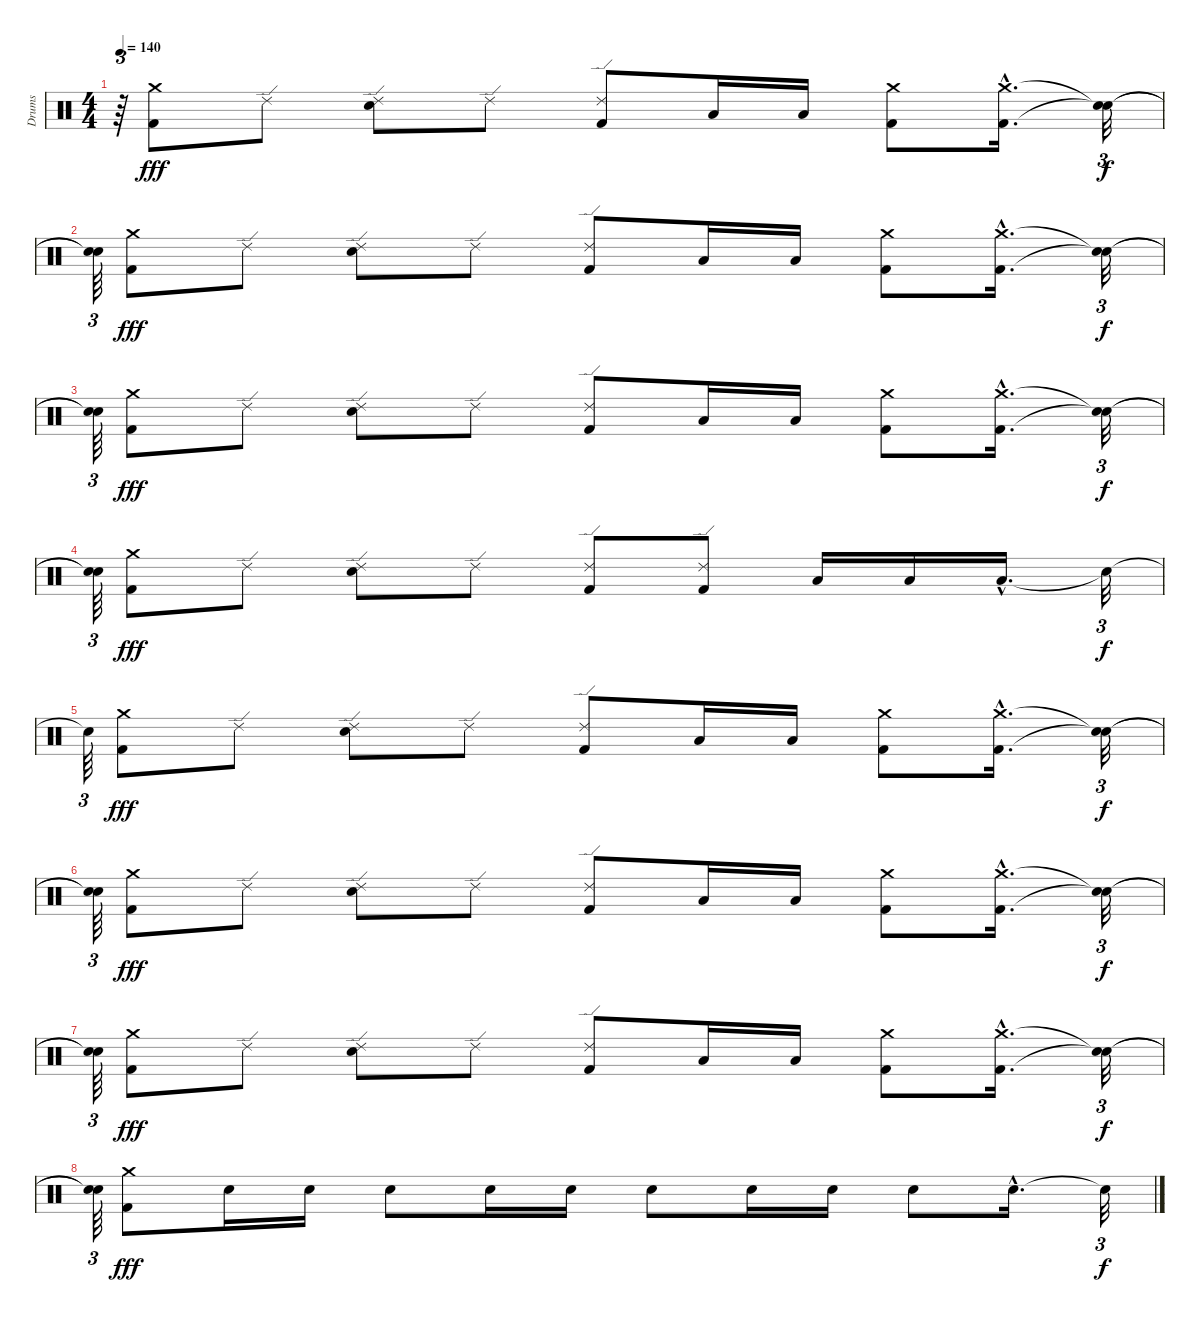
\track ("Drums" "Drums") {instrument percussion}
\staff {score}
\articulation defaults
\ts (4 4)
\tempo 140
\clef neutral
\ks c
r.64{tu (3 2) dy f} ("Crash medium (hit)" "Kick (hit) 2").8{dy fff} "Ride (edge) 2".8 ("Snare (hit) 2" "Ride (edge) 2").8 "Ride (edge) 2".8 ("Ride (edge) 2" "Kick (hit) 2").8 "Low Tom (hit)".16 "Low Tom (hit)".16 ("Crash medium (hit)" "Kick (hit) 2").8 ("Crash medium (hit)"{hac} "Kick (hit) 2"{hac}).16{d} ("Snare (hit)"{t} "Snare (hit)"{t}).32{tu (3 2) dy f} |
("Snare (hit)"{t} "Snare (hit)"{t}).64{tu (3 2)} ("Crash medium (hit)" "Kick (hit) 2").8{dy fff} "Ride (edge) 2".8 ("Snare (hit) 2" "Ride (edge) 2").8 "Ride (edge) 2".8 ("Ride (edge) 2" "Kick (hit) 2").8 "Low Tom (hit)".16 "Low Tom (hit)".16 ("Crash medium (hit)" "Kick (hit) 2").8 ("Crash medium (hit)"{hac} "Kick (hit) 2"{hac}).16{d} ("Snare (hit)"{t} "Snare (hit)"{t}).32{tu (3 2) dy f} |
("Snare (hit)"{t} "Snare (hit)"{t}).64{tu (3 2)} ("Crash medium (hit)" "Kick (hit) 2").8{dy fff} "Ride (edge) 2".8 ("Snare (hit) 2" "Ride (edge) 2").8 "Ride (edge) 2".8 ("Ride (edge) 2" "Kick (hit) 2").8 "Low Tom (hit)".16 "Low Tom (hit)".16 ("Crash medium (hit)" "Kick (hit) 2").8 ("Crash medium (hit)"{hac} "Kick (hit) 2"{hac}).16{d} ("Snare (hit)"{t} "Snare (hit)"{t}).32{tu (3 2) dy f} |
("Snare (hit)"{t} "Snare (hit)"{t}).64{tu (3 2)} ("Crash medium (hit)" "Kick (hit) 2").8{dy fff} "Ride (edge) 2".8 ("Snare (hit) 2" "Ride (edge) 2").8 "Ride (edge) 2".8 ("Kick (hit) 2" "Ride (edge) 2").8 ("Ride (edge) 2" "Kick (hit) 2").8 "Low Tom (hit)".16 "Low Tom (hit)".16 "Low Tom (hit)"{hac}.16{d} "Snare (hit)"{t}.32{tu (3 2) dy f} |
"Snare (hit)"{t}.64{tu (3 2)} ("Crash medium (hit)" "Kick (hit) 2").8{dy fff} "Ride (edge) 2".8 ("Snare (hit) 2" "Ride (edge) 2").8 "Ride (edge) 2".8 ("Ride (edge) 2" "Kick (hit) 2").8 "Low Tom (hit)".16 "Low Tom (hit)".16 ("Crash medium (hit)" "Kick (hit) 2").8 ("Crash medium (hit)"{hac} "Kick (hit) 2"{hac}).16{d} ("Snare (hit)"{t} "Snare (hit)"{t}).32{tu (3 2) dy f} |
("Snare (hit)"{t} "Snare (hit)"{t}).64{tu (3 2)} ("Crash medium (hit)" "Kick (hit) 2").8{dy fff} "Ride (edge) 2".8 ("Snare (hit) 2" "Ride (edge) 2").8 "Ride (edge) 2".8 ("Ride (edge) 2" "Kick (hit) 2").8 "Low Tom (hit)".16 "Low Tom (hit)".16 ("Crash medium (hit)" "Kick (hit) 2").8 ("Crash medium (hit)"{hac} "Kick (hit) 2"{hac}).16{d} ("Snare (hit)"{t} "Snare (hit)"{t}).32{tu (3 2) dy f} |
("Snare (hit)"{t} "Snare (hit)"{t}).64{tu (3 2)} ("Crash medium (hit)" "Kick (hit) 2").8{dy fff} "Ride (edge) 2".8 ("Snare (hit) 2" "Ride (edge) 2").8 "Ride (edge) 2".8 ("Ride (edge) 2" "Kick (hit) 2").8 "Low Tom (hit)".16 "Low Tom (hit)".16 ("Crash medium (hit)" "Kick (hit) 2").8 ("Crash medium (hit)"{hac} "Kick (hit) 2"{hac}).16{d} ("Snare (hit)"{t} "Snare (hit)"{t}).32{tu (3 2) dy f} |
("Snare (hit)"{t} "Snare (hit)"{t}).64{tu (3 2)} ("Kick (hit) 2" "Crash medium (hit)").8{dy fff} "Snare (hit) 2".16 "Snare (hit) 2".16 "Snare (hit) 2".8 "Snare (hit) 2".16 "Snare (hit) 2".16 "Snare (hit) 2".8 "Snare (hit) 2".16 "Snare (hit) 2".16 "Snare (hit) 2".8 "Snare (hit) 2"{hac}.16{d} "Snare (hit)"{t}.32{tu (3 2) dy f}
